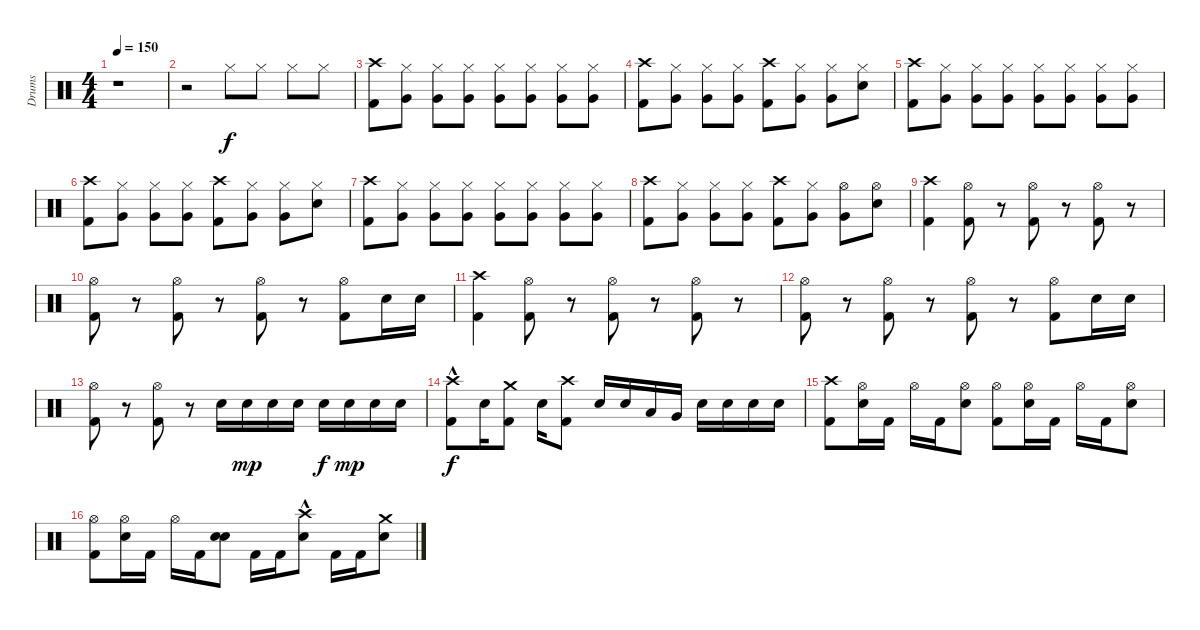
\track ("Drums" "Drums") {instrument percussion}
\staff {score}
\articulation defaults
\ts (4 4)
\tempo 150
\clef neutral
\ks c
r.1{dy f} |
r.2 "Hi-Hat (closed)".8 "Hi-Hat (closed)".8 "Hi-Hat (closed)".8 "Hi-Hat (closed)".8 |
("Crash high (hit)" "Kick (hit) 2").8 ("Hi-Hat (closed)" "Very Low Tom (hit)").8 ("Hi-Hat (closed)" "Very Low Tom (hit)").8 ("Hi-Hat (closed)" "Very Low Tom (hit)").8 ("Hi-Hat (closed)" "Very Low Tom (hit)").8 ("Hi-Hat (closed)" "Very Low Tom (hit)").8 ("Hi-Hat (closed)" "Very Low Tom (hit)").8 ("Hi-Hat (closed)" "Very Low Tom (hit)").8 |
("Crash high (hit)" "Kick (hit) 2").8 ("Hi-Hat (closed)" "Very Low Tom (hit)").8 ("Hi-Hat (closed)" "Very Low Tom (hit)").8 ("Hi-Hat (closed)" "Very Low Tom (hit)").8 ("Crash high (hit)" "Kick (hit) 2").8 ("Hi-Hat (closed)" "Very Low Tom (hit)").8 ("Hi-Hat (closed)" "Very Low Tom (hit)").8 ("Hi-Hat (closed)" "Electric Snare (hit)").8 |
("Crash high (hit)" "Kick (hit) 2").8 ("Hi-Hat (closed)" "Very Low Tom (hit)").8 ("Hi-Hat (closed)" "Very Low Tom (hit)").8 ("Hi-Hat (closed)" "Very Low Tom (hit)").8 ("Hi-Hat (closed)" "Very Low Tom (hit)").8 ("Hi-Hat (closed)" "Very Low Tom (hit)").8 ("Hi-Hat (closed)" "Very Low Tom (hit)").8 ("Hi-Hat (closed)" "Very Low Tom (hit)").8 |
("Crash high (hit)" "Kick (hit) 2").8 ("Hi-Hat (closed)" "Very Low Tom (hit)").8 ("Hi-Hat (closed)" "Very Low Tom (hit)").8 ("Hi-Hat (closed)" "Very Low Tom (hit)").8 ("Crash high (hit)" "Kick (hit) 2").8 ("Hi-Hat (closed)" "Very Low Tom (hit)").8 ("Hi-Hat (closed)" "Very Low Tom (hit)").8 ("Hi-Hat (closed)" "Electric Snare (hit)").8 |
("Crash high (hit)" "Kick (hit) 2").8 ("Hi-Hat (closed)" "Very Low Tom (hit)").8 ("Hi-Hat (closed)" "Very Low Tom (hit)").8 ("Hi-Hat (closed)" "Very Low Tom (hit)").8 ("Hi-Hat (closed)" "Very Low Tom (hit)").8 ("Hi-Hat (closed)" "Very Low Tom (hit)").8 ("Hi-Hat (closed)" "Very Low Tom (hit)").8 ("Hi-Hat (closed)" "Very Low Tom (hit)").8 |
("Crash high (hit)" "Kick (hit) 2").8 ("Hi-Hat (closed)" "Very Low Tom (hit)").8 ("Hi-Hat (closed)" "Very Low Tom (hit)").8 ("Hi-Hat (closed)" "Very Low Tom (hit)").8 ("Crash high (hit)" "Kick (hit) 2").8 ("Hi-Hat (closed)" "Very Low Tom (hit)").8 ("Hi-Hat (open)" "Very Low Tom (hit)").8 ("Hi-Hat (open)" "Electric Snare (hit)").8 |
("Kick (hit) 2" "Crash high (hit)").4 ("Kick (hit) 2" "Hi-Hat (open)").8 r.8 ("Kick (hit) 2" "Hi-Hat (open)").8 r.8 ("Kick (hit) 2" "Hi-Hat (open)").8 r.8 |
("Kick (hit) 2" "Hi-Hat (open)").8 r.8 ("Kick (hit) 2" "Hi-Hat (open)").8 r.8 ("Kick (hit) 2" "Hi-Hat (open)").8 r.8 ("Kick (hit) 2" "Hi-Hat (open)").8 "Electric Snare (hit)".16 "Electric Snare (hit)".16 |
("Kick (hit) 2" "Crash high (hit)").4 ("Kick (hit) 2" "Hi-Hat (open)").8 r.8 ("Kick (hit) 2" "Hi-Hat (open)").8 r.8 ("Kick (hit) 2" "Hi-Hat (open)").8 r.8 |
("Kick (hit) 2" "Hi-Hat (open)").8 r.8 ("Kick (hit) 2" "Hi-Hat (open)").8 r.8 ("Kick (hit) 2" "Hi-Hat (open)").8 r.8 ("Kick (hit) 2" "Hi-Hat (open)").8 "Electric Snare (hit)".16 "Electric Snare (hit)".16 |
("Kick (hit) 2" "Hi-Hat (open)").8 r.8 ("Kick (hit) 2" "Hi-Hat (open)").8 r.8 "Electric Snare (hit)".16 "Electric Snare (hit)".16{dy mp} "Electric Snare (hit)".16 "Electric Snare (hit)".16 "Electric Snare (hit)".16{dy f} "Electric Snare (hit)".16{dy mp} "Electric Snare (hit)".16 "Electric Snare (hit)".16 |
("Kick (hit) 2" "Crash high (hit)"{hac}).8{dy f} "Electric Snare (hit)".16 ("Kick (hit) 2" "Crash medium (hit)").8 "Electric Snare (hit)".16 ("Kick (hit) 2" "Crash high (hit)").8 "Electric Snare (hit)".16 "Electric Snare (hit)".16 "Low Tom (hit)".16 "Very Low Tom (hit)".16 "Electric Snare (hit)".16 "Electric Snare (hit)".16 "Electric Snare (hit)".16 "Electric Snare (hit)".16 |
("Crash high (hit)" "Kick (hit) 2").8 ("Electric Snare (hit)" "Hi-Hat (open)").16 "Kick (hit) 2".16 "Hi-Hat (open)".16 "Kick (hit) 2".16 ("Electric Snare (hit)" "Hi-Hat (open)").8 ("Hi-Hat (open)" "Kick (hit) 2").8 ("Electric Snare (hit)" "Hi-Hat (open)").16 "Kick (hit) 2".16 "Hi-Hat (open)".16 "Kick (hit) 2".16 ("Electric Snare (hit)" "Hi-Hat (open)").8 |
("Kick (hit) 2" "Hi-Hat (open)").8 ("Electric Snare (hit)" "Hi-Hat (open)").16 "Kick (hit) 2".16 "Hi-Hat (open)".16 "Kick (hit) 2".16 ("Electric Snare (hit)" "Electric Snare (hit)").8 "Kick (hit) 2".16 "Kick (hit) 2".16 ("Crash high (hit)"{hac} "Electric Snare (hit)").8 "Kick (hit) 2".16 "Kick (hit) 2".16 ("Crash medium (hit)" "Electric Snare (hit)").8
